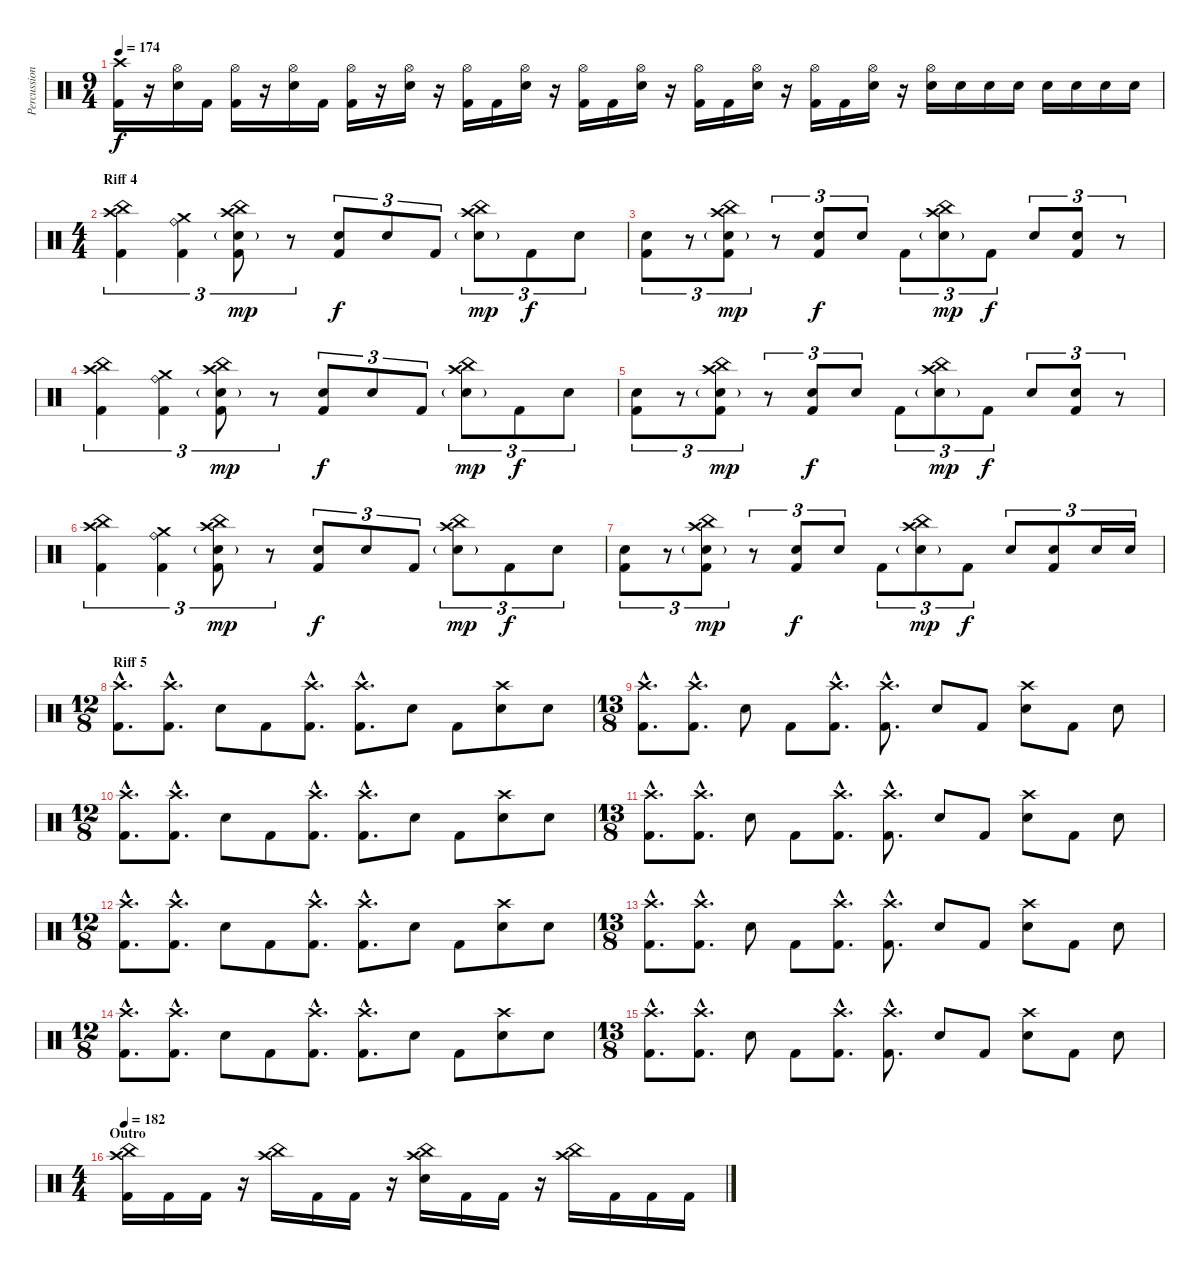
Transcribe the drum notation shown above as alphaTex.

\track ("Percussion" "Percussion") {instrument percussion}
\staff {score}
\articulation defaults
\ts (9 4)
\tempo 174
\clef neutral
\ks c
("Crash high (hit)" "Kick (hit) 2").16{dy f} r.16 ("Hi-Hat (open)" "Electric Snare (hit)").16 "Kick (hit) 2".16 ("Hi-Hat (open)" "Kick (hit) 2").16 r.16 ("Hi-Hat (open)" "Electric Snare (hit)").16 "Kick (hit) 2".16 ("Hi-Hat (open)" "Kick (hit) 2").16 r.16 ("Hi-Hat (open)" "Electric Snare (hit)").16 r.16 ("Hi-Hat (open)" "Kick (hit) 2").16 "Kick (hit) 2".16 ("Hi-Hat (open)" "Electric Snare (hit)").16 r.16 ("Hi-Hat (open)" "Kick (hit) 2").16 "Kick (hit) 2".16 ("Hi-Hat (open)" "Electric Snare (hit)").16 r.16 ("Hi-Hat (open)" "Kick (hit) 2").16 "Kick (hit) 2".16 ("Hi-Hat (open)" "Electric Snare (hit)").16 r.16 ("Hi-Hat (open)" "Kick (hit) 2").16 "Kick (hit) 2".16 ("Hi-Hat (open)" "Electric Snare (hit)").16 r.16 ("Hi-Hat (open)" "Electric Snare (hit)").16 "Electric Snare (hit)".16 "Electric Snare (hit)".16 "Electric Snare (hit)".16 "Electric Snare (hit)".16 "Electric Snare (hit)".16 "Electric Snare (hit)".16 "Electric Snare (hit)".16 |
\ts (4 4)
\section ("" "Riff 4")
("China (hit)" "Crash high (hit)" "Kick (hit) 2").4{tu (3 2)} ("Ride (bell)" "Crash medium (hit)" "Kick (hit) 2").4{tu (3 2)} ("China (hit)" "Crash high (hit)" "Electric Snare (hit)"{g} "Kick (hit) 2").8{tu (3 2) dy mp} r.8{tu (3 2)} ("Electric Snare (hit)" "Kick (hit) 2").8{tu (3 2) dy f} "Electric Snare (hit)".8{tu (3 2)} "Kick (hit) 2".8{tu (3 2)} ("China (hit)" "Crash high (hit)" "Electric Snare (hit)"{g}).8{tu (3 2) dy mp} "Kick (hit) 2".8{tu (3 2) dy f} "Electric Snare (hit)".8{tu (3 2)} |
("Electric Snare (hit)" "Kick (hit) 2").8{tu (3 2)} r.8{tu (3 2)} ("China (hit)" "Crash high (hit)" "Electric Snare (hit)"{g} "Kick (hit) 2").8{tu (3 2) dy mp} r.8{tu (3 2)} ("Electric Snare (hit)" "Kick (hit) 2").8{tu (3 2) dy f} "Electric Snare (hit)".8{tu (3 2)} "Kick (hit) 2".8{tu (3 2)} ("China (hit)" "Crash high (hit)" "Electric Snare (hit)"{g}).8{tu (3 2) dy mp} "Kick (hit) 2".8{tu (3 2) dy f} "Electric Snare (hit)".8{tu (3 2)} ("Electric Snare (hit)" "Kick (hit) 2").8{tu (3 2)} r.8{tu (3 2)} |
("China (hit)" "Crash high (hit)" "Kick (hit) 2").4{tu (3 2)} ("Ride (bell)" "Crash medium (hit)" "Kick (hit) 2").4{tu (3 2)} ("China (hit)" "Crash high (hit)" "Electric Snare (hit)"{g} "Kick (hit) 2").8{tu (3 2) dy mp} r.8{tu (3 2)} ("Electric Snare (hit)" "Kick (hit) 2").8{tu (3 2) dy f} "Electric Snare (hit)".8{tu (3 2)} "Kick (hit) 2".8{tu (3 2)} ("China (hit)" "Crash high (hit)" "Electric Snare (hit)"{g}).8{tu (3 2) dy mp} "Kick (hit) 2".8{tu (3 2) dy f} "Electric Snare (hit)".8{tu (3 2)} |
("Electric Snare (hit)" "Kick (hit) 2").8{tu (3 2)} r.8{tu (3 2)} ("China (hit)" "Crash high (hit)" "Electric Snare (hit)"{g} "Kick (hit) 2").8{tu (3 2) dy mp} r.8{tu (3 2)} ("Electric Snare (hit)" "Kick (hit) 2").8{tu (3 2) dy f} "Electric Snare (hit)".8{tu (3 2)} "Kick (hit) 2".8{tu (3 2)} ("China (hit)" "Crash high (hit)" "Electric Snare (hit)"{g}).8{tu (3 2) dy mp} "Kick (hit) 2".8{tu (3 2) dy f} "Electric Snare (hit)".8{tu (3 2)} ("Electric Snare (hit)" "Kick (hit) 2").8{tu (3 2)} r.8{tu (3 2)} |
("China (hit)" "Crash high (hit)" "Kick (hit) 2").4{tu (3 2)} ("Ride (bell)" "Crash medium (hit)" "Kick (hit) 2").4{tu (3 2)} ("China (hit)" "Crash high (hit)" "Electric Snare (hit)"{g} "Kick (hit) 2").8{tu (3 2) dy mp} r.8{tu (3 2)} ("Electric Snare (hit)" "Kick (hit) 2").8{tu (3 2) dy f} "Electric Snare (hit)".8{tu (3 2)} "Kick (hit) 2".8{tu (3 2)} ("China (hit)" "Crash high (hit)" "Electric Snare (hit)"{g}).8{tu (3 2) dy mp} "Kick (hit) 2".8{tu (3 2) dy f} "Electric Snare (hit)".8{tu (3 2)} |
("Electric Snare (hit)" "Kick (hit) 2").8{tu (3 2)} r.8{tu (3 2)} ("China (hit)" "Crash high (hit)" "Electric Snare (hit)"{g} "Kick (hit) 2").8{tu (3 2) dy mp} r.8{tu (3 2)} ("Electric Snare (hit)" "Kick (hit) 2").8{tu (3 2) dy f} "Electric Snare (hit)".8{tu (3 2)} "Kick (hit) 2".8{tu (3 2)} ("China (hit)" "Crash high (hit)" "Electric Snare (hit)"{g}).8{tu (3 2) dy mp} "Kick (hit) 2".8{tu (3 2) dy f} "Electric Snare (hit)".8{tu (3 2)} ("Electric Snare (hit)" "Kick (hit) 2").8{tu (3 2)} "Electric Snare (hit)".16{tu (3 2)} "Electric Snare (hit)".16{tu (3 2)} |
\ts (12 8)
\section ("" "Riff 5")
("Crash high (hit)"{hac} "Kick (hit) 2"{hac}).8{d} ("Crash high (hit)"{hac} "Kick (hit) 2"{hac}).8{d} "Electric Snare (hit)".8 "Kick (hit) 2".8 ("Crash high (hit)"{hac} "Kick (hit) 2"{hac}).8{d} ("Crash high (hit)"{hac} "Kick (hit) 2"{hac}).8{d} "Electric Snare (hit)".8 "Kick (hit) 2".8 ("Crash high (hit)" "Electric Snare (hit)").8 "Electric Snare (hit)".8 |
\ts (13 8)
("Crash high (hit)"{hac} "Kick (hit) 2"{hac}).8{d} ("Crash high (hit)"{hac} "Kick (hit) 2"{hac}).8{d} "Electric Snare (hit)".8 "Kick (hit) 2".8 ("Crash high (hit)"{hac} "Kick (hit) 2"{hac}).8{d} ("Crash high (hit)"{hac} "Kick (hit) 2"{hac}).8{d} "Electric Snare (hit)".8 "Kick (hit) 2".8 ("Crash high (hit)" "Electric Snare (hit)").8 "Kick (hit) 2".8 "Electric Snare (hit)".8 |
\ts (12 8)
("Crash high (hit)"{hac} "Kick (hit) 2"{hac}).8{d} ("Crash high (hit)"{hac} "Kick (hit) 2"{hac}).8{d} "Electric Snare (hit)".8 "Kick (hit) 2".8 ("Crash high (hit)"{hac} "Kick (hit) 2"{hac}).8{d} ("Crash high (hit)"{hac} "Kick (hit) 2"{hac}).8{d} "Electric Snare (hit)".8 "Kick (hit) 2".8 ("Crash high (hit)" "Electric Snare (hit)").8 "Electric Snare (hit)".8 |
\ts (13 8)
("Crash high (hit)"{hac} "Kick (hit) 2"{hac}).8{d} ("Crash high (hit)"{hac} "Kick (hit) 2"{hac}).8{d} "Electric Snare (hit)".8 "Kick (hit) 2".8 ("Crash high (hit)"{hac} "Kick (hit) 2"{hac}).8{d} ("Crash high (hit)"{hac} "Kick (hit) 2"{hac}).8{d} "Electric Snare (hit)".8 "Kick (hit) 2".8 ("Crash high (hit)" "Electric Snare (hit)").8 "Kick (hit) 2".8 "Electric Snare (hit)".8 |
\ts (12 8)
("Crash high (hit)"{hac} "Kick (hit) 2"{hac}).8{d} ("Crash high (hit)"{hac} "Kick (hit) 2"{hac}).8{d} "Electric Snare (hit)".8 "Kick (hit) 2".8 ("Crash high (hit)"{hac} "Kick (hit) 2"{hac}).8{d} ("Crash high (hit)"{hac} "Kick (hit) 2"{hac}).8{d} "Electric Snare (hit)".8 "Kick (hit) 2".8 ("Crash high (hit)" "Electric Snare (hit)").8 "Electric Snare (hit)".8 |
\ts (13 8)
("Crash high (hit)"{hac} "Kick (hit) 2"{hac}).8{d} ("Crash high (hit)"{hac} "Kick (hit) 2"{hac}).8{d} "Electric Snare (hit)".8 "Kick (hit) 2".8 ("Crash high (hit)"{hac} "Kick (hit) 2"{hac}).8{d} ("Crash high (hit)"{hac} "Kick (hit) 2"{hac}).8{d} "Electric Snare (hit)".8 "Kick (hit) 2".8 ("Crash high (hit)" "Electric Snare (hit)").8 "Kick (hit) 2".8 "Electric Snare (hit)".8 |
\ts (12 8)
("Crash high (hit)"{hac} "Kick (hit) 2"{hac}).8{d} ("Crash high (hit)"{hac} "Kick (hit) 2"{hac}).8{d} "Electric Snare (hit)".8 "Kick (hit) 2".8 ("Crash high (hit)"{hac} "Kick (hit) 2"{hac}).8{d} ("Crash high (hit)"{hac} "Kick (hit) 2"{hac}).8{d} "Electric Snare (hit)".8 "Kick (hit) 2".8 ("Crash high (hit)" "Electric Snare (hit)").8 "Electric Snare (hit)".8 |
\ts (13 8)
("Crash high (hit)"{hac} "Kick (hit) 2"{hac}).8{d} ("Crash high (hit)"{hac} "Kick (hit) 2"{hac}).8{d} "Electric Snare (hit)".8 "Kick (hit) 2".8 ("Crash high (hit)"{hac} "Kick (hit) 2"{hac}).8{d} ("Crash high (hit)"{hac} "Kick (hit) 2"{hac}).8{d} "Electric Snare (hit)".8 "Kick (hit) 2".8 ("Crash high (hit)" "Electric Snare (hit)").8 "Kick (hit) 2".8 "Electric Snare (hit)".8 |
\ts (4 4)
\section ("" "Outro")
\tempo 174
\tempo 182
("China (hit)" "Crash high (hit)" "Kick (hit) 2").16 "Kick (hit) 2".16 "Kick (hit) 2".16 r.16 ("China (hit)" "Crash high (hit)").16 "Kick (hit) 2".16 "Kick (hit) 2".16 r.16 ("China (hit)" "Crash high (hit)" "Electric Snare (hit)").16 "Kick (hit) 2".16 "Kick (hit) 2".16 r.16 ("China (hit)" "Crash high (hit)").16 "Kick (hit) 2".16 "Kick (hit) 2".16 "Kick (hit) 2".16
